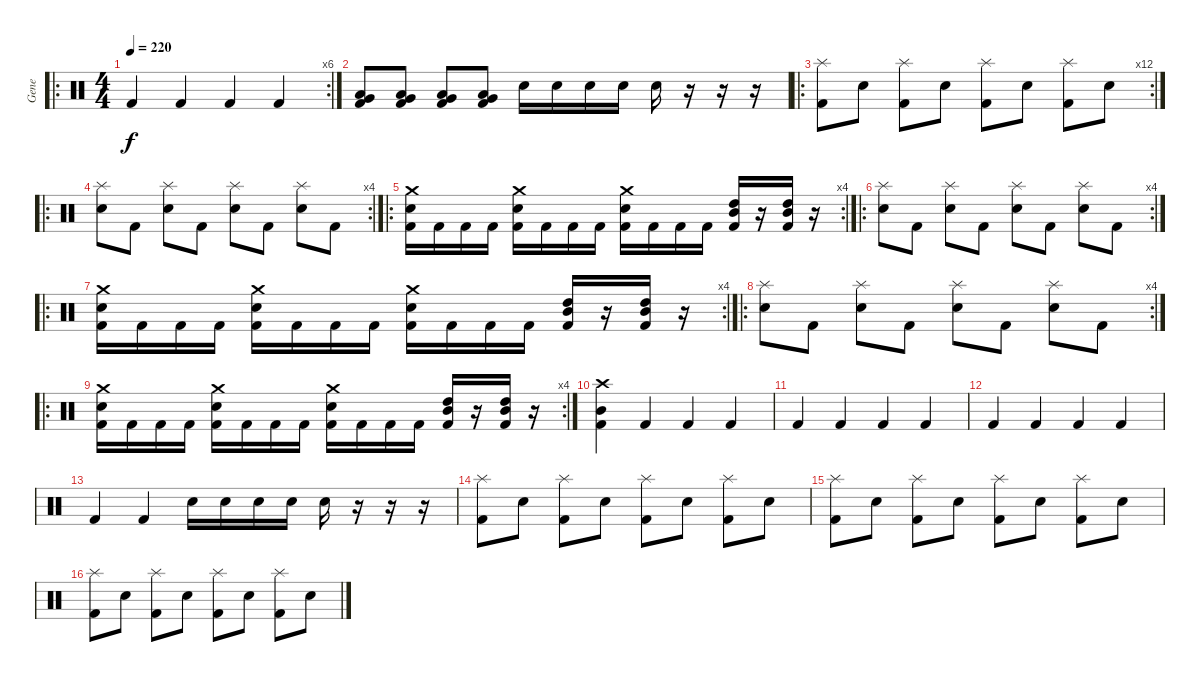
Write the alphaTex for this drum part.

\track ("Gene" "Gene") {instrument percussion}
\staff {score}
\articulation defaults
\ro
\rc 6
\ts (4 4)
\tempo 220
\clef neutral
\ks c "Kick (hit) 2".4{dy f} "Kick (hit) 2".4 "Kick (hit) 2".4 "Kick (hit) 2".4
|
("Very Low Tom (hit)" "Low Tom (hit)" "Kick (hit) 2").8 ("Very Low Tom (hit)" "Low Tom (hit)" "Kick (hit) 2").8 ("Very Low Tom (hit)" "Low Tom (hit)" "Kick (hit) 2").8 ("Very Low Tom (hit)" "Low Tom (hit)" "Kick (hit) 2").8 "Electric Snare (hit)".16 "Electric Snare (hit)".16 "Electric Snare (hit)".16 "Electric Snare (hit)".16 "Electric Snare (hit)".16 r.16 r.16 r.16 |
\ro
\rc 12
("Splash (hit)" "Kick (hit) 2").8 "Electric Snare (hit)".8 ("Splash (hit)" "Kick (hit) 2").8 "Electric Snare (hit)".8 ("Splash (hit)" "Kick (hit) 2").8 "Electric Snare (hit)".8 ("Splash (hit)" "Kick (hit) 2").8 "Electric Snare (hit)".8 |
\ro
\rc 4
("Splash (hit)" "Electric Snare (hit)").8 "Kick (hit) 2".8 ("Splash (hit)" "Electric Snare (hit)").8 "Kick (hit) 2".8 ("Splash (hit)" "Electric Snare (hit)").8 "Kick (hit) 2".8 ("Splash (hit)" "Electric Snare (hit)").8 "Kick (hit) 2".8 |
\ro
\rc 4
("Crash medium (hit)" "Electric Snare (hit)" "Kick (hit) 2").16 "Kick (hit) 2".16 "Kick (hit) 2".16 "Kick (hit) 2".16 ("Crash medium (hit)" "Electric Snare (hit)" "Kick (hit) 2").16 "Kick (hit) 2".16 "Kick (hit) 2".16 "Kick (hit) 2".16 ("Crash medium (hit)" "Electric Snare (hit)" "Kick (hit) 2").16 "Kick (hit) 2".16 "Kick (hit) 2".16 "Kick (hit) 2".16 ("High Tom (hit)" "Mid Tom (hit)" "Kick (hit) 2").16 r.16 ("High Tom (hit)" "Mid Tom (hit)" "Kick (hit) 2").16 r.16 |
\ro
\rc 4
("Splash (hit)" "Electric Snare (hit)").8 "Kick (hit) 2".8 ("Splash (hit)" "Electric Snare (hit)").8 "Kick (hit) 2".8 ("Splash (hit)" "Electric Snare (hit)").8 "Kick (hit) 2".8 ("Splash (hit)" "Electric Snare (hit)").8 "Kick (hit) 2".8 |
\ro
\rc 4
("Crash medium (hit)" "Electric Snare (hit)" "Kick (hit) 2").16 "Kick (hit) 2".16 "Kick (hit) 2".16 "Kick (hit) 2".16 ("Crash medium (hit)" "Electric Snare (hit)" "Kick (hit) 2").16 "Kick (hit) 2".16 "Kick (hit) 2".16 "Kick (hit) 2".16 ("Crash medium (hit)" "Electric Snare (hit)" "Kick (hit) 2").16 "Kick (hit) 2".16 "Kick (hit) 2".16 "Kick (hit) 2".16 ("High Tom (hit)" "Mid Tom (hit)" "Kick (hit) 2").16 r.16 ("High Tom (hit)" "Mid Tom (hit)" "Kick (hit) 2").16 r.16 |
\ro
\rc 4
("Splash (hit)" "Electric Snare (hit)").8 "Kick (hit) 2".8 ("Splash (hit)" "Electric Snare (hit)").8 "Kick (hit) 2".8 ("Splash (hit)" "Electric Snare (hit)").8 "Kick (hit) 2".8 ("Splash (hit)" "Electric Snare (hit)").8 "Kick (hit) 2".8 |
\ro
\rc 4
("Crash medium (hit)" "Electric Snare (hit)" "Kick (hit) 2").16 "Kick (hit) 2".16 "Kick (hit) 2".16 "Kick (hit) 2".16 ("Crash medium (hit)" "Electric Snare (hit)" "Kick (hit) 2").16 "Kick (hit) 2".16 "Kick (hit) 2".16 "Kick (hit) 2".16 ("Crash medium (hit)" "Electric Snare (hit)" "Kick (hit) 2").16 "Kick (hit) 2".16 "Kick (hit) 2".16 "Kick (hit) 2".16 ("High Tom (hit)" "Mid Tom (hit)" "Kick (hit) 2").16 r.16 ("High Tom (hit)" "Mid Tom (hit)" "Kick (hit) 2").16 r.16 |
("Mid Tom (hit)" "Crash high (hit)" "Kick (hit) 2").4 "Kick (hit) 2".4 "Kick (hit) 2".4 "Kick (hit) 2".4 |
"Kick (hit) 2".4 "Kick (hit) 2".4 "Kick (hit) 2".4 "Kick (hit) 2".4 |
"Kick (hit) 2".4 "Kick (hit) 2".4 "Kick (hit) 2".4 "Kick (hit) 2".4 |
"Kick (hit) 2".4 "Kick (hit) 2".4 "Electric Snare (hit)".16 "Electric Snare (hit)".16 "Electric Snare (hit)".16 "Electric Snare (hit)".16 "Electric Snare (hit)".16 r.16 r.16 r.16 |
("Splash (hit)" "Kick (hit) 2").8 "Electric Snare (hit)".8 ("Splash (hit)" "Kick (hit) 2").8 "Electric Snare (hit)".8 ("Splash (hit)" "Kick (hit) 2").8 "Electric Snare (hit)".8 ("Splash (hit)" "Kick (hit) 2").8 "Electric Snare (hit)".8 |
("Splash (hit)" "Kick (hit) 2").8 "Electric Snare (hit)".8 ("Splash (hit)" "Kick (hit) 2").8 "Electric Snare (hit)".8 ("Splash (hit)" "Kick (hit) 2").8 "Electric Snare (hit)".8 ("Splash (hit)" "Kick (hit) 2").8 "Electric Snare (hit)".8 |
("Splash (hit)" "Kick (hit) 2").8 "Electric Snare (hit)".8 ("Splash (hit)" "Kick (hit) 2").8 "Electric Snare (hit)".8 ("Splash (hit)" "Kick (hit) 2").8 "Electric Snare (hit)".8 ("Splash (hit)" "Kick (hit) 2").8 "Electric Snare (hit)".8
